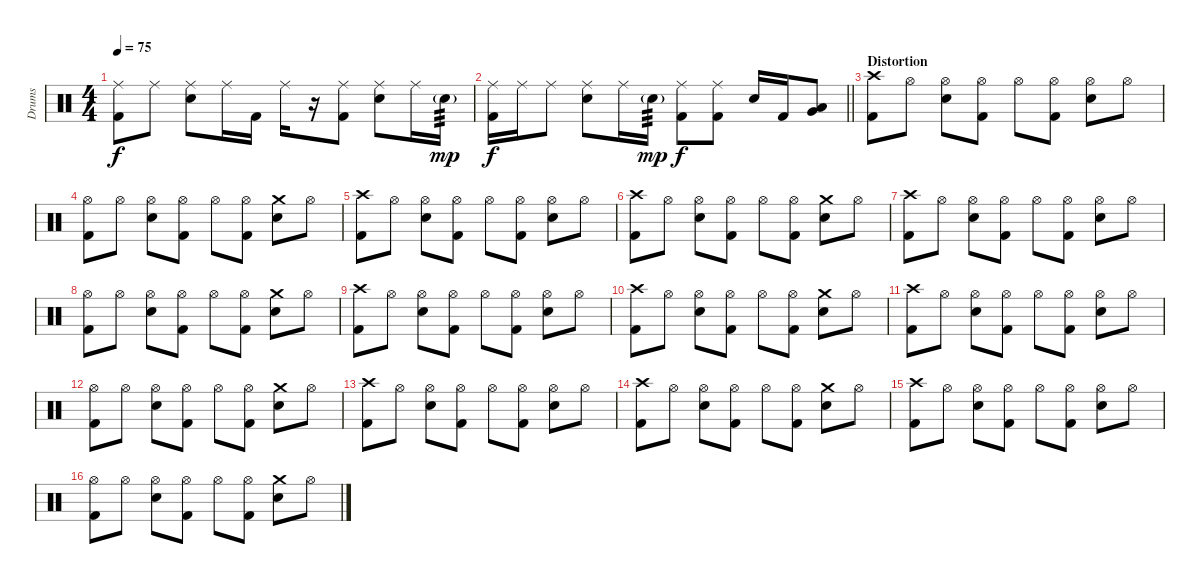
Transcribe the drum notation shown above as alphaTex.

\track ("Drums" "Drums") {instrument percussion}
\staff {score}
\articulation defaults
\ts (4 4)
\tempo 75
\clef neutral
\ks c
("Ride (middle)" "Kick (hit) 2").8{dy f} "Ride (middle)".8 ("Ride (middle)" "Electric Snare (hit)").8 "Ride (middle)".16 "Kick (hit) 2".16 "Ride (middle)".16 r.16 ("Ride (middle)" "Kick (hit) 2").8 ("Ride (middle)" "Electric Snare (hit)").8 "Ride (middle)".16 "Electric Snare (hit)"{g}.16{tp 3 dy mp} |
\barLineRight lightlight
("Ride (middle)" "Kick (hit) 2").16{dy f} "Ride (middle)".16 "Ride (middle)".8 ("Ride (middle)" "Electric Snare (hit)").8 "Ride (middle)".16 "Electric Snare (hit)"{g}.16{tp 3 dy mp} ("Ride (middle)" "Kick (hit) 2").8{dy f} ("Ride (middle)" "Kick (hit) 2").8 "Electric Snare (hit)".16 "Kick (hit) 2".16 ("Low Tom (hit)" "Very Low Tom (hit)").8 |
\section ("" "Distortion")
("Crash high (hit)" "Kick (hit) 2").8 "Hi-Hat (open)".8 ("Hi-Hat (open)" "Electric Snare (hit)").8 ("Hi-Hat (open)" "Kick (hit) 2").8 "Hi-Hat (open)".8 ("Hi-Hat (open)" "Kick (hit) 2").8 ("Hi-Hat (open)" "Electric Snare (hit)").8 "Hi-Hat (open)".8 |
("Hi-Hat (open)" "Kick (hit) 2").8 "Hi-Hat (open)".8 ("Hi-Hat (open)" "Electric Snare (hit)").8 ("Hi-Hat (open)" "Kick (hit) 2").8 "Hi-Hat (open)".8 ("Hi-Hat (open)" "Kick (hit) 2").8 ("Crash medium (hit)" "Electric Snare (hit)").8 "Hi-Hat (open)".8 |
("Crash high (hit)" "Kick (hit) 2").8 "Hi-Hat (open)".8 ("Hi-Hat (open)" "Electric Snare (hit)").8 ("Hi-Hat (open)" "Kick (hit) 2").8 "Hi-Hat (open)".8 ("Hi-Hat (open)" "Kick (hit) 2").8 ("Hi-Hat (open)" "Electric Snare (hit)").8 "Hi-Hat (open)".8 |
("Crash high (hit)" "Kick (hit) 2").8 "Hi-Hat (open)".8 ("Hi-Hat (open)" "Electric Snare (hit)").8 ("Hi-Hat (open)" "Kick (hit) 2").8 "Hi-Hat (open)".8 ("Hi-Hat (open)" "Kick (hit) 2").8 ("Crash medium (hit)" "Electric Snare (hit)").8 "Hi-Hat (open)".8 |
("Crash high (hit)" "Kick (hit) 2").8 "Hi-Hat (open)".8 ("Hi-Hat (open)" "Electric Snare (hit)").8 ("Hi-Hat (open)" "Kick (hit) 2").8 "Hi-Hat (open)".8 ("Hi-Hat (open)" "Kick (hit) 2").8 ("Hi-Hat (open)" "Electric Snare (hit)").8 "Hi-Hat (open)".8 |
("Hi-Hat (open)" "Kick (hit) 2").8 "Hi-Hat (open)".8 ("Hi-Hat (open)" "Electric Snare (hit)").8 ("Hi-Hat (open)" "Kick (hit) 2").8 "Hi-Hat (open)".8 ("Hi-Hat (open)" "Kick (hit) 2").8 ("Crash medium (hit)" "Electric Snare (hit)").8 "Hi-Hat (open)".8 |
("Crash high (hit)" "Kick (hit) 2").8 "Hi-Hat (open)".8 ("Hi-Hat (open)" "Electric Snare (hit)").8 ("Hi-Hat (open)" "Kick (hit) 2").8 "Hi-Hat (open)".8 ("Hi-Hat (open)" "Kick (hit) 2").8 ("Hi-Hat (open)" "Electric Snare (hit)").8 "Hi-Hat (open)".8 |
("Crash high (hit)" "Kick (hit) 2").8 "Hi-Hat (open)".8 ("Hi-Hat (open)" "Electric Snare (hit)").8 ("Hi-Hat (open)" "Kick (hit) 2").8 "Hi-Hat (open)".8 ("Hi-Hat (open)" "Kick (hit) 2").8 ("Crash medium (hit)" "Electric Snare (hit)").8 "Hi-Hat (open)".8 |
("Crash high (hit)" "Kick (hit) 2").8 "Hi-Hat (open)".8 ("Hi-Hat (open)" "Electric Snare (hit)").8 ("Hi-Hat (open)" "Kick (hit) 2").8 "Hi-Hat (open)".8 ("Hi-Hat (open)" "Kick (hit) 2").8 ("Hi-Hat (open)" "Electric Snare (hit)").8 "Hi-Hat (open)".8 |
("Hi-Hat (open)" "Kick (hit) 2").8 "Hi-Hat (open)".8 ("Hi-Hat (open)" "Electric Snare (hit)").8 ("Hi-Hat (open)" "Kick (hit) 2").8 "Hi-Hat (open)".8 ("Hi-Hat (open)" "Kick (hit) 2").8 ("Crash medium (hit)" "Electric Snare (hit)").8 "Hi-Hat (open)".8 |
("Crash high (hit)" "Kick (hit) 2").8 "Hi-Hat (open)".8 ("Hi-Hat (open)" "Electric Snare (hit)").8 ("Hi-Hat (open)" "Kick (hit) 2").8 "Hi-Hat (open)".8 ("Hi-Hat (open)" "Kick (hit) 2").8 ("Hi-Hat (open)" "Electric Snare (hit)").8 "Hi-Hat (open)".8 |
("Crash high (hit)" "Kick (hit) 2").8 "Hi-Hat (open)".8 ("Hi-Hat (open)" "Electric Snare (hit)").8 ("Hi-Hat (open)" "Kick (hit) 2").8 "Hi-Hat (open)".8 ("Hi-Hat (open)" "Kick (hit) 2").8 ("Crash medium (hit)" "Electric Snare (hit)").8 "Hi-Hat (open)".8 |
("Crash high (hit)" "Kick (hit) 2").8 "Hi-Hat (open)".8 ("Hi-Hat (open)" "Electric Snare (hit)").8 ("Hi-Hat (open)" "Kick (hit) 2").8 "Hi-Hat (open)".8 ("Hi-Hat (open)" "Kick (hit) 2").8 ("Hi-Hat (open)" "Electric Snare (hit)").8 "Hi-Hat (open)".8 |
("Hi-Hat (open)" "Kick (hit) 2").8 "Hi-Hat (open)".8 ("Hi-Hat (open)" "Electric Snare (hit)").8 ("Hi-Hat (open)" "Kick (hit) 2").8 "Hi-Hat (open)".8 ("Hi-Hat (open)" "Kick (hit) 2").8 ("Crash medium (hit)" "Electric Snare (hit)").8 "Hi-Hat (open)".8
